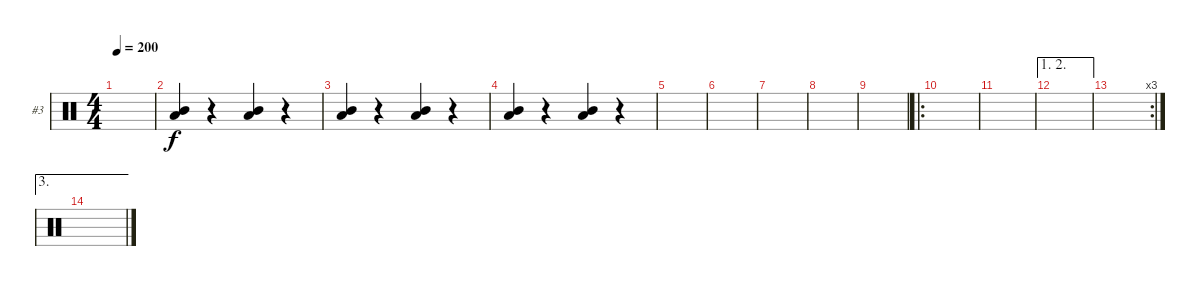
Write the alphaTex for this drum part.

\bracketExtendMode groupsimilarinstruments
\firstSystemTrackNameOrientation horizontal
\otherSystemsTrackNameOrientation horizontal
\track ("Chris Fehn" "#3") {instrument percussion}
\staff {score}
\articulation defaults
\ts (4 4)
\tempo 200
\clef neutral
\ks c
|
("Low Tom (hit)" "Mid Tom (hit)").4 r.4 ("Low Tom (hit)" "Mid Tom (hit)").4 r.4 |
("Low Tom (hit)" "Mid Tom (hit)").4 r.4 ("Low Tom (hit)" "Mid Tom (hit)").4 r.4 |
("Low Tom (hit)" "Mid Tom (hit)").4 r.4 ("Low Tom (hit)" "Mid Tom (hit)").4 r.4 |
|
|
|
|
|
\ro
|
|
\ae (1 2)
|
\rc 3
|
\ae 3
